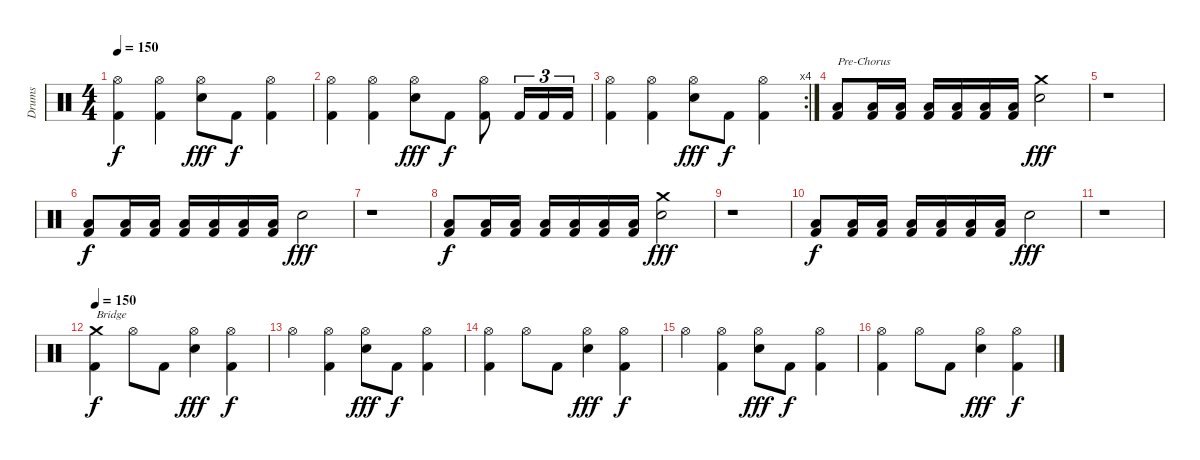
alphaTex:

\track ("Drums" "Drums") {instrument percussion}
\staff {score}
\articulation defaults
\ts (4 4)
\tempo 150
\clef neutral
\ks c
("Hi-Hat (open)" "Kick (hit) 2").4{dy f} ("Hi-Hat (open)" "Kick (hit) 2").4 ("Hi-Hat (open)" "Snare (hit) 2").8{dy fff} "Kick (hit) 2".8{dy f} ("Hi-Hat (open)" "Kick (hit) 2").4 |
("Hi-Hat (open)" "Kick (hit) 2").4 ("Hi-Hat (open)" "Kick (hit) 2").4 ("Hi-Hat (open)" "Snare (hit) 2").8{dy fff} "Kick (hit) 2".8{dy f} ("Hi-Hat (open)" "Kick (hit) 2").8 "Kick (hit) 2".16{tu (3 2)} "Kick (hit) 2".16{tu (3 2)} "Kick (hit) 2".16{tu (3 2)} |
\rc 4
("Hi-Hat (open)" "Kick (hit) 2").4 ("Hi-Hat (open)" "Kick (hit) 2").4 ("Hi-Hat (open)" "Snare (hit) 2").8{dy fff} "Kick (hit) 2".8{dy f} ("Hi-Hat (open)" "Kick (hit) 2").4 |
("Low Floor Tom (hit)" "Kick (hit) 2").8{txt "Pre-Chorus"} ("Low Floor Tom (hit)" "Kick (hit) 2").16 ("Low Floor Tom (hit)" "Kick (hit) 2").16 ("Low Floor Tom (hit)" "Kick (hit) 2").16 ("Low Floor Tom (hit)" "Kick (hit) 2").16 ("Low Floor Tom (hit)" "Kick (hit) 2").16 ("Low Floor Tom (hit)" "Kick (hit) 2").16 ("Crash medium (hit)" "Snare (hit) 2").2{dy fff} |
r.1 |
("Low Floor Tom (hit)" "Kick (hit) 2").8{dy f} ("Low Floor Tom (hit)" "Kick (hit) 2").16 ("Low Floor Tom (hit)" "Kick (hit) 2").16 ("Low Floor Tom (hit)" "Kick (hit) 2").16 ("Low Floor Tom (hit)" "Kick (hit) 2").16 ("Low Floor Tom (hit)" "Kick (hit) 2").16 ("Low Floor Tom (hit)" "Kick (hit) 2").16 "Snare (hit) 2".2{dy fff} |
r.1 |
("Low Floor Tom (hit)" "Kick (hit) 2").8{dy f} ("Low Floor Tom (hit)" "Kick (hit) 2").16 ("Low Floor Tom (hit)" "Kick (hit) 2").16 ("Low Floor Tom (hit)" "Kick (hit) 2").16 ("Low Floor Tom (hit)" "Kick (hit) 2").16 ("Low Floor Tom (hit)" "Kick (hit) 2").16 ("Low Floor Tom (hit)" "Kick (hit) 2").16 ("Crash medium (hit)" "Snare (hit) 2").2{dy fff} |
r.1 |
("Low Floor Tom (hit)" "Kick (hit) 2").8{dy f} ("Low Floor Tom (hit)" "Kick (hit) 2").16 ("Low Floor Tom (hit)" "Kick (hit) 2").16 ("Low Floor Tom (hit)" "Kick (hit) 2").16 ("Low Floor Tom (hit)" "Kick (hit) 2").16 ("Low Floor Tom (hit)" "Kick (hit) 2").16 ("Low Floor Tom (hit)" "Kick (hit) 2").16 "Snare (hit) 2".2{dy fff} |
r.1 |
\tempo 150
("Crash medium (hit)" "Kick (hit) 2").4{txt "Bridge" dy f} "Hi-Hat (open)".8 "Kick (hit) 2".8 ("Hi-Hat (open)" "Snare (hit) 2").4{dy fff} ("Hi-Hat (open)" "Kick (hit) 2").4{dy f} |
"Hi-Hat (open)".4 ("Hi-Hat (open)" "Kick (hit) 2").4 ("Hi-Hat (open)" "Snare (hit) 2").8{dy fff} "Kick (hit) 2".8{dy f} ("Hi-Hat (open)" "Kick (hit) 2").4 |
("Hi-Hat (open)" "Kick (hit) 2").4 "Hi-Hat (open)".8 "Kick (hit) 2".8 ("Hi-Hat (open)" "Snare (hit) 2").4{dy fff} ("Hi-Hat (open)" "Kick (hit) 2").4{dy f} |
"Hi-Hat (open)".4 ("Hi-Hat (open)" "Kick (hit) 2").4 ("Hi-Hat (open)" "Snare (hit) 2").8{dy fff} "Kick (hit) 2".8{dy f} ("Hi-Hat (open)" "Kick (hit) 2").4 |
("Hi-Hat (open)" "Kick (hit) 2").4 "Hi-Hat (open)".8 "Kick (hit) 2".8 ("Hi-Hat (open)" "Snare (hit) 2").4{dy fff} ("Hi-Hat (open)" "Kick (hit) 2").4{dy f}
